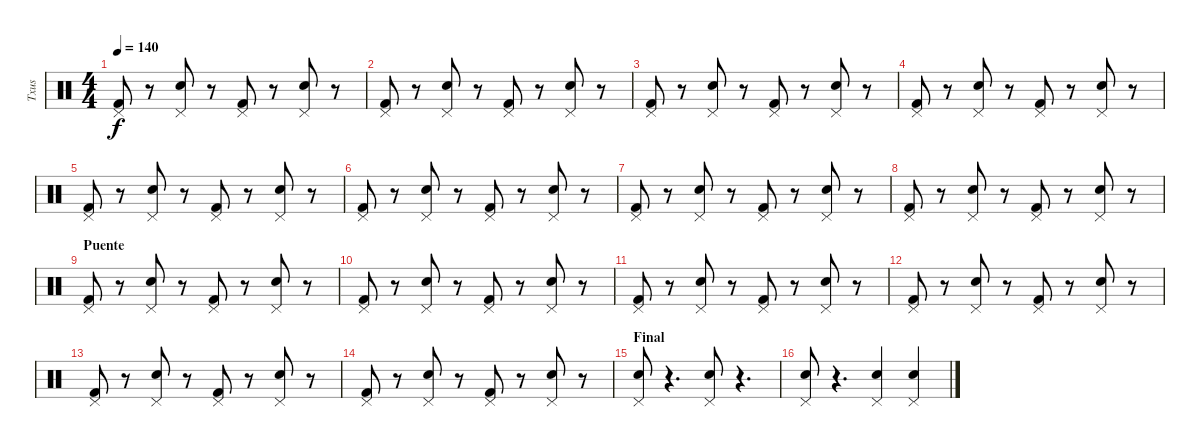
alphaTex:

\track ("Txus" "Txus") {instrument percussion}
\staff {score}
\articulation defaults
\ts (4 4)
\tempo 140
\clef neutral
\ks c
("Pedal Hi-Hat (hit)" "Kick (hit) 2").8{dy f} r.8 ("Pedal Hi-Hat (hit)" "Snare (hit) 2").8 r.8 ("Pedal Hi-Hat (hit)" "Kick (hit) 2").8 r.8 ("Pedal Hi-Hat (hit)" "Snare (hit) 2").8 r.8 |
("Pedal Hi-Hat (hit)" "Kick (hit) 2").8 r.8 ("Pedal Hi-Hat (hit)" "Snare (hit) 2").8 r.8 ("Pedal Hi-Hat (hit)" "Kick (hit) 2").8 r.8 ("Pedal Hi-Hat (hit)" "Snare (hit) 2").8 r.8 |
("Pedal Hi-Hat (hit)" "Kick (hit) 2").8 r.8 ("Pedal Hi-Hat (hit)" "Snare (hit) 2").8 r.8 ("Pedal Hi-Hat (hit)" "Kick (hit) 2").8 r.8 ("Pedal Hi-Hat (hit)" "Snare (hit) 2").8 r.8 |
("Pedal Hi-Hat (hit)" "Kick (hit) 2").8 r.8 ("Pedal Hi-Hat (hit)" "Snare (hit) 2").8 r.8 ("Pedal Hi-Hat (hit)" "Kick (hit) 2").8 r.8 ("Pedal Hi-Hat (hit)" "Snare (hit) 2").8 r.8 |
("Pedal Hi-Hat (hit)" "Kick (hit) 2").8 r.8 ("Pedal Hi-Hat (hit)" "Snare (hit) 2").8 r.8 ("Pedal Hi-Hat (hit)" "Kick (hit) 2").8 r.8 ("Pedal Hi-Hat (hit)" "Snare (hit) 2").8 r.8 |
("Pedal Hi-Hat (hit)" "Kick (hit) 2").8 r.8 ("Pedal Hi-Hat (hit)" "Snare (hit) 2").8 r.8 ("Pedal Hi-Hat (hit)" "Kick (hit) 2").8 r.8 ("Pedal Hi-Hat (hit)" "Snare (hit) 2").8 r.8 |
("Pedal Hi-Hat (hit)" "Kick (hit) 2").8 r.8 ("Pedal Hi-Hat (hit)" "Snare (hit) 2").8 r.8 ("Pedal Hi-Hat (hit)" "Kick (hit) 2").8 r.8 ("Pedal Hi-Hat (hit)" "Snare (hit) 2").8 r.8 |
("Pedal Hi-Hat (hit)" "Kick (hit) 2").8 r.8 ("Pedal Hi-Hat (hit)" "Snare (hit) 2").8 r.8 ("Pedal Hi-Hat (hit)" "Kick (hit) 2").8 r.8 ("Pedal Hi-Hat (hit)" "Snare (hit) 2").8 r.8 |
\section ("" "Puente")
("Pedal Hi-Hat (hit)" "Kick (hit) 2").8 r.8 ("Pedal Hi-Hat (hit)" "Snare (hit) 2").8 r.8 ("Pedal Hi-Hat (hit)" "Kick (hit) 2").8 r.8 ("Pedal Hi-Hat (hit)" "Snare (hit) 2").8 r.8 |
("Pedal Hi-Hat (hit)" "Kick (hit) 2").8 r.8 ("Pedal Hi-Hat (hit)" "Snare (hit) 2").8 r.8 ("Pedal Hi-Hat (hit)" "Kick (hit) 2").8 r.8 ("Pedal Hi-Hat (hit)" "Snare (hit) 2").8 r.8 |
("Pedal Hi-Hat (hit)" "Kick (hit) 2").8 r.8 ("Pedal Hi-Hat (hit)" "Snare (hit) 2").8 r.8 ("Pedal Hi-Hat (hit)" "Kick (hit) 2").8 r.8 ("Pedal Hi-Hat (hit)" "Snare (hit) 2").8 r.8 |
("Pedal Hi-Hat (hit)" "Kick (hit) 2").8 r.8 ("Pedal Hi-Hat (hit)" "Snare (hit) 2").8 r.8 ("Pedal Hi-Hat (hit)" "Kick (hit) 2").8 r.8 ("Pedal Hi-Hat (hit)" "Snare (hit) 2").8 r.8 |
("Pedal Hi-Hat (hit)" "Kick (hit) 2").8 r.8 ("Pedal Hi-Hat (hit)" "Snare (hit) 2").8 r.8 ("Pedal Hi-Hat (hit)" "Kick (hit) 2").8 r.8 ("Pedal Hi-Hat (hit)" "Snare (hit) 2").8 r.8 |
("Pedal Hi-Hat (hit)" "Kick (hit) 2").8 r.8 ("Pedal Hi-Hat (hit)" "Snare (hit) 2").8 r.8 ("Pedal Hi-Hat (hit)" "Kick (hit) 2").8 r.8 ("Pedal Hi-Hat (hit)" "Snare (hit) 2").8 r.8 |
\section ("" "Final")
("Pedal Hi-Hat (hit)" "Snare (hit) 2").8 r.4{d} ("Pedal Hi-Hat (hit)" "Snare (hit) 2").8 r.4{d} |
("Pedal Hi-Hat (hit)" "Snare (hit) 2").8 r.4{d} ("Pedal Hi-Hat (hit)" "Snare (hit) 2").4 ("Pedal Hi-Hat (hit)" "Snare (hit) 2").4
